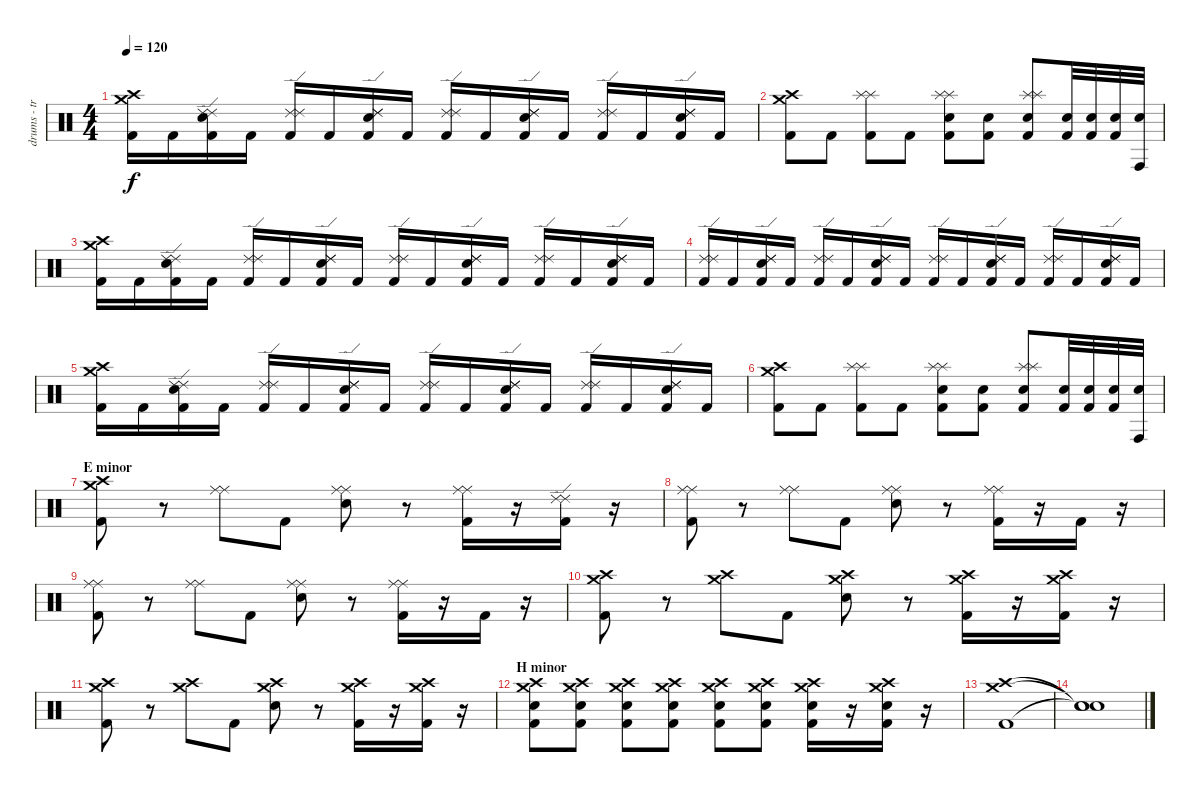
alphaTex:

\track ("drums - trash and prog sections" "drums - tr") {instrument percussion}
\staff {score}
\articulation defaults
\ts (4 4)
\tempo 120
\clef neutral
\ks c
("Crash medium (hit)" "Crash high (hit)" "Kick (hit) 2").16{dy f} "Kick (hit) 2".16 ("Ride (edge) 2" "Ride (edge) 2" "Snare (hit) 2" "Kick (hit) 2").16 "Kick (hit) 2".16 ("Ride (edge) 2" "Ride (edge) 2" "Kick (hit) 2").16 "Kick (hit) 2".16 ("Ride (edge) 2" "Ride (edge) 2" "Snare (hit) 2" "Kick (hit) 2").16 "Kick (hit) 2".16 ("Ride (edge) 2" "Ride (edge) 2" "Kick (hit) 2").16 "Kick (hit) 2".16 ("Ride (edge) 2" "Ride (edge) 2" "Snare (hit) 2" "Kick (hit) 2").16 "Kick (hit) 2".16 ("Ride (edge) 2" "Ride (edge) 2" "Kick (hit) 2").16 "Kick (hit) 2".16 ("Ride (edge) 2" "Ride (edge) 2" "Snare (hit) 2" "Kick (hit) 2").16 "Kick (hit) 2".16 |
("Crash medium (hit)" "Crash high (hit)" "Kick (hit) 2").8 "Kick (hit) 2".8 ("Splash (hit)" "Splash (hit)" "Kick (hit) 2").8 "Kick (hit) 2".8 ("Splash (hit)" "Splash (hit)" "Snare (hit) 2" "Kick (hit) 2").8 ("Snare (hit) 2" "Kick (hit) 2").8 ("Splash (hit)" "Splash (hit)" "Snare (hit) 2" "Kick (hit) 2").8 ("Snare (hit) 2" "Kick (hit) 2").32 ("Snare (hit) 2" "Kick (hit) 2").32 ("Snare (hit) 2" "Kick (hit) 2").32 ("Snare (hit) 2" "Conga high (hit)").32 |
("Crash medium (hit)" "Crash high (hit)" "Kick (hit) 2").16 "Kick (hit) 2".16 ("Ride (edge) 2" "Ride (edge) 2" "Snare (hit) 2" "Kick (hit) 2").16 "Kick (hit) 2".16 ("Ride (edge) 2" "Ride (edge) 2" "Kick (hit) 2").16 "Kick (hit) 2".16 ("Ride (edge) 2" "Ride (edge) 2" "Snare (hit) 2" "Kick (hit) 2").16 "Kick (hit) 2".16 ("Ride (edge) 2" "Ride (edge) 2" "Kick (hit) 2").16 "Kick (hit) 2".16 ("Ride (edge) 2" "Ride (edge) 2" "Snare (hit) 2" "Kick (hit) 2").16 "Kick (hit) 2".16 ("Ride (edge) 2" "Ride (edge) 2" "Kick (hit) 2").16 "Kick (hit) 2".16 ("Ride (edge) 2" "Ride (edge) 2" "Snare (hit) 2" "Kick (hit) 2").16 "Kick (hit) 2".16 |
("Ride (edge) 2" "Ride (edge) 2" "Kick (hit) 2").16 "Kick (hit) 2".16 ("Ride (edge) 2" "Ride (edge) 2" "Snare (hit) 2" "Kick (hit) 2").16 "Kick (hit) 2".16 ("Ride (edge) 2" "Ride (edge) 2" "Kick (hit) 2").16 "Kick (hit) 2".16 ("Ride (edge) 2" "Ride (edge) 2" "Snare (hit) 2" "Kick (hit) 2").16 "Kick (hit) 2".16 ("Ride (edge) 2" "Ride (edge) 2" "Kick (hit) 2").16 "Kick (hit) 2".16 ("Ride (edge) 2" "Ride (edge) 2" "Snare (hit) 2" "Kick (hit) 2").16 "Kick (hit) 2".16 ("Ride (edge) 2" "Ride (edge) 2" "Kick (hit) 2").16 "Kick (hit) 2".16 ("Ride (edge) 2" "Ride (edge) 2" "Snare (hit) 2" "Kick (hit) 2").16 "Kick (hit) 2".16 |
("Crash medium (hit)" "Crash high (hit)" "Kick (hit) 2").16 "Kick (hit) 2".16 ("Ride (edge) 2" "Ride (edge) 2" "Snare (hit) 2" "Kick (hit) 2").16 "Kick (hit) 2".16 ("Ride (edge) 2" "Ride (edge) 2" "Kick (hit) 2").16 "Kick (hit) 2".16 ("Ride (edge) 2" "Ride (edge) 2" "Snare (hit) 2" "Kick (hit) 2").16 "Kick (hit) 2".16 ("Ride (edge) 2" "Ride (edge) 2" "Kick (hit) 2").16 "Kick (hit) 2".16 ("Ride (edge) 2" "Ride (edge) 2" "Snare (hit) 2" "Kick (hit) 2").16 "Kick (hit) 2".16 ("Ride (edge) 2" "Ride (edge) 2" "Kick (hit) 2").16 "Kick (hit) 2".16 ("Ride (edge) 2" "Ride (edge) 2" "Snare (hit) 2" "Kick (hit) 2").16 "Kick (hit) 2".16 |
("Crash medium (hit)" "Crash high (hit)" "Kick (hit) 2").8 "Kick (hit) 2".8 ("Splash (hit)" "Splash (hit)" "Kick (hit) 2").8 "Kick (hit) 2".8 ("Splash (hit)" "Splash (hit)" "Snare (hit) 2" "Kick (hit) 2").8 ("Snare (hit) 2" "Kick (hit) 2").8 ("Splash (hit)" "Splash (hit)" "Snare (hit) 2" "Kick (hit) 2").8 ("Snare (hit) 2" "Kick (hit) 2").32 ("Snare (hit) 2" "Kick (hit) 2").32 ("Snare (hit) 2" "Kick (hit) 2").32 ("Snare (hit) 2" "Conga high (hit)").32 |
\section ("" "E minor")
("Crash medium (hit)" "Crash high (hit)" "Kick (hit) 2").8 r.8 ("Ride (middle)" "Ride (middle)").8 "Kick (hit) 2".8 ("Ride (middle)" "Ride (middle)" "Snare (hit) 2").8 r.8 ("Ride (middle)" "Ride (middle)" "Kick (hit) 2").16 r.16 ("Ride (edge) 2" "Ride (edge) 2" "Kick (hit) 2").16 r.16 |
("Ride (middle)" "Ride (middle)" "Kick (hit) 2").8 r.8 ("Ride (middle)" "Ride (middle)").8 "Kick (hit) 2".8 ("Ride (middle)" "Ride (middle)" "Snare (hit) 2").8 r.8 ("Ride (middle)" "Ride (middle)" "Kick (hit) 2").16 r.16 "Kick (hit) 2".16 r.16 |
("Ride (middle)" "Ride (middle)" "Kick (hit) 2").8 r.8 ("Ride (middle)" "Ride (middle)").8 "Kick (hit) 2".8 ("Ride (middle)" "Ride (middle)" "Snare (hit) 2").8 r.8 ("Ride (middle)" "Ride (middle)" "Kick (hit) 2").16 r.16 "Kick (hit) 2".16 r.16 |
("Crash medium (hit)" "Crash high (hit)" "Kick (hit) 2").8 r.8 ("Crash medium (hit)" "Crash high (hit)").8 "Kick (hit) 2".8 ("Crash high (hit)" "Crash medium (hit)" "Snare (hit) 2").8 r.8 ("Crash high (hit)" "Crash medium (hit)" "Kick (hit) 2").16 r.16 ("Crash high (hit)" "Crash medium (hit)" "Kick (hit) 2").16 r.16 |
("Crash medium (hit)" "Crash high (hit)" "Kick (hit) 2").8 r.8 ("Crash medium (hit)" "Crash high (hit)").8 "Kick (hit) 2".8 ("Crash high (hit)" "Crash medium (hit)" "Snare (hit) 2").8 r.8 ("Crash high (hit)" "Crash medium (hit)" "Kick (hit) 2").16 r.16 ("Crash high (hit)" "Crash medium (hit)" "Kick (hit) 2").16 r.16 |
\section ("" "H minor")
("Crash medium (hit)" "Crash high (hit)" "Snare (hit) 2" "Kick (hit) 2").8 ("Crash medium (hit)" "Crash high (hit)" "Snare (hit) 2" "Kick (hit) 2").8 ("Crash medium (hit)" "Crash high (hit)" "Snare (hit) 2" "Kick (hit) 2").8 ("Crash medium (hit)" "Crash high (hit)" "Snare (hit) 2" "Kick (hit) 2").8 ("Crash high (hit)" "Crash medium (hit)" "Snare (hit) 2" "Kick (hit) 2").8 ("Crash medium (hit)" "Crash high (hit)" "Snare (hit) 2" "Kick (hit) 2").8 ("Crash high (hit)" "Crash medium (hit)" "Snare (hit) 2" "Kick (hit) 2").16 r.16 ("Crash high (hit)" "Crash medium (hit)" "Snare (hit) 2" "Kick (hit) 2").16 r.16 |
("Crash medium (hit)" "Crash high (hit)" "Kick (hit) 2").1 |
("Snare (hit)"{t} "Snare (hit)"{t} "Snare (hit)"{t}).1
